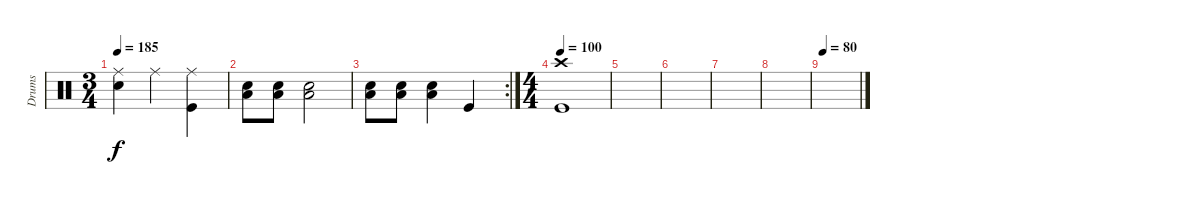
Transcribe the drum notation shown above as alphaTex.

\track ("Drums" "Drums") {instrument percussion}
\staff {score}
\articulation defaults
\ts (3 4)
\tempo 185
\clef neutral
\ks c
("Ride (middle)" "Snare (hit) 2").4{dy f} "Ride (middle)".4 ("Ride (middle)" "Kick (hit)").4 |
("Low Floor Tom (hit)" "Snare (hit) 2").8 ("Low Floor Tom (hit)" "Snare (hit) 2").8 ("Low Floor Tom (hit)" "Snare (hit) 2").2 |
\rc 2
("Low Floor Tom (hit)" "Snare (hit) 2").8 ("Low Floor Tom (hit)" "Snare (hit) 2").8 ("Low Floor Tom (hit)" "Snare (hit) 2").4 "Kick (hit)".4 |
\ts (4 4)
\tempo 100
("Crash high (hit)" "Kick (hit)").1 |
|
|
|
|
\tempo 80
